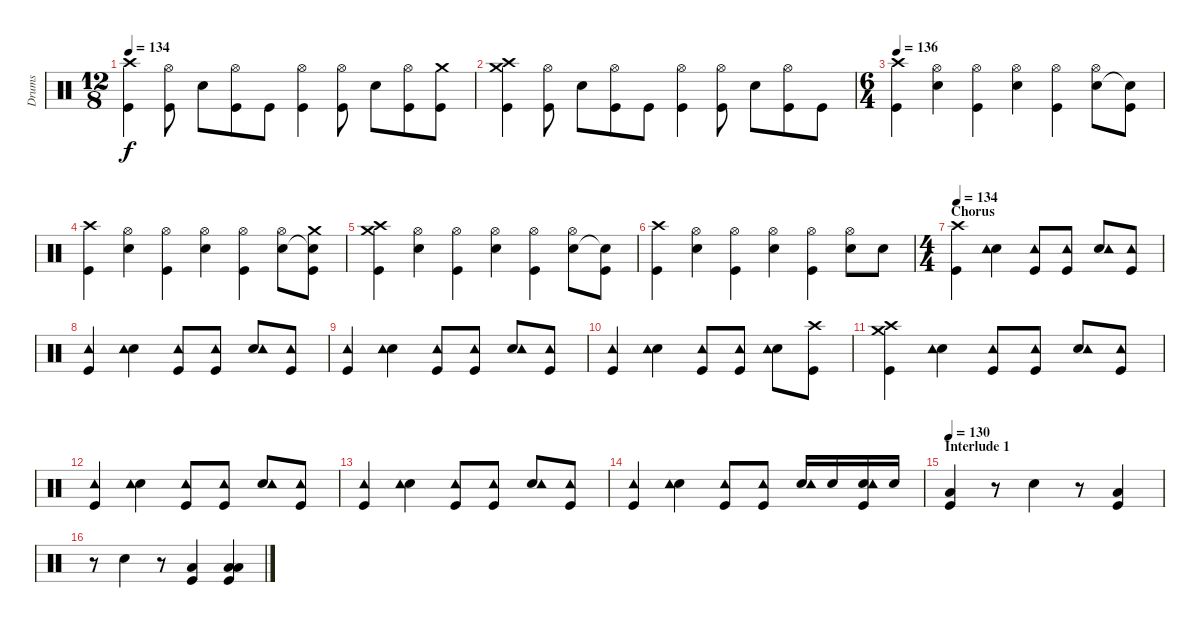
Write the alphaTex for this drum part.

\track ("Drums" "Drums") {instrument percussion}
\staff {score}
\articulation defaults
\ts (12 8)
\tempo 134
\clef neutral
\ks c
("Crash high (hit)" "Kick (hit)").4{dy f} ("Hi-Hat (open)" "Kick (hit)").8 "Electric Snare (hit)".8 ("Hi-Hat (open)" "Kick (hit)").8 "Kick (hit)".8 ("Hi-Hat (open)" "Kick (hit)").4 ("Hi-Hat (open)" "Kick (hit)").8 "Electric Snare (hit)".8 ("Hi-Hat (open)" "Kick (hit)").8 ("Crash medium (hit)" "Kick (hit)").8 |
("Crash medium (hit)" "Crash high (hit)" "Kick (hit)").4 ("Hi-Hat (open)" "Kick (hit)").8 "Electric Snare (hit)".8 ("Hi-Hat (open)" "Kick (hit)").8 "Kick (hit)".8 ("Hi-Hat (open)" "Kick (hit)").4 ("Hi-Hat (open)" "Kick (hit)").8 "Electric Snare (hit)".8 ("Hi-Hat (open)" "Kick (hit)").8 "Kick (hit)".8 |
\ts (6 4)
\tempo 136
("Crash high (hit)" "Kick (hit)").4 ("Electric Snare (hit)" "Hi-Hat (open)").4 ("Hi-Hat (open)" "Kick (hit)").4 ("Electric Snare (hit)" "Hi-Hat (open)").4 ("Hi-Hat (open)" "Kick (hit)").4 ("Electric Snare (hit)" "Hi-Hat (open)").8 ("Snare (hit)"{t} "Kick (hit)").8 |
("Crash high (hit)" "Kick (hit)").4 ("Electric Snare (hit)" "Hi-Hat (open)").4 ("Hi-Hat (open)" "Kick (hit)").4 ("Electric Snare (hit)" "Hi-Hat (open)").4 ("Hi-Hat (open)" "Kick (hit)").4 ("Electric Snare (hit)" "Hi-Hat (open)").8 ("Snare (hit)"{t} "Crash medium (hit)" "Kick (hit)").8 |
("Crash medium (hit)" "Crash high (hit)" "Kick (hit)").4 ("Electric Snare (hit)" "Hi-Hat (open)").4 ("Hi-Hat (open)" "Kick (hit)").4 ("Electric Snare (hit)" "Hi-Hat (open)").4 ("Hi-Hat (open)" "Kick (hit)").4 ("Electric Snare (hit)" "Hi-Hat (open)").8 ("Snare (hit)"{t} "Kick (hit)").8 |
("Crash high (hit)" "Kick (hit)").4 ("Electric Snare (hit)" "Hi-Hat (open)").4 ("Hi-Hat (open)" "Kick (hit)").4 ("Electric Snare (hit)" "Hi-Hat (open)").4 ("Hi-Hat (open)" "Kick (hit)").4 ("Electric Snare (hit)" "Hi-Hat (open)").8 "Electric Snare (hit)".8 |
\ts (4 4)
\section ("" "Chorus")
\tempo 134
("Crash high (hit)" "Kick (hit)").4 ("Electric Snare (hit)" "Tambourine (hit)").4 ("Tambourine (hit)" "Kick (hit)").8 ("Tambourine (hit)" "Kick (hit)").8 ("Electric Snare (hit)" "Tambourine (hit)").8 ("Tambourine (hit)" "Kick (hit)").8 |
("Tambourine (hit)" "Kick (hit)").4 ("Electric Snare (hit)" "Tambourine (hit)").4 ("Tambourine (hit)" "Kick (hit)").8 ("Tambourine (hit)" "Kick (hit)").8 ("Electric Snare (hit)" "Tambourine (hit)").8 ("Tambourine (hit)" "Kick (hit)").8 |
("Tambourine (hit)" "Kick (hit)").4 ("Electric Snare (hit)" "Tambourine (hit)").4 ("Tambourine (hit)" "Kick (hit)").8 ("Tambourine (hit)" "Kick (hit)").8 ("Electric Snare (hit)" "Tambourine (hit)").8 ("Tambourine (hit)" "Kick (hit)").8 |
("Tambourine (hit)" "Kick (hit)").4 ("Electric Snare (hit)" "Tambourine (hit)").4 ("Tambourine (hit)" "Kick (hit)").8 ("Tambourine (hit)" "Kick (hit)").8 ("Electric Snare (hit)" "Tambourine (hit)").8 ("Crash high (hit)" "Kick (hit)").8 |
("Crash medium (hit)" "Crash high (hit)" "Kick (hit)").4 ("Electric Snare (hit)" "Tambourine (hit)").4 ("Tambourine (hit)" "Kick (hit)").8 ("Tambourine (hit)" "Kick (hit)").8 ("Electric Snare (hit)" "Tambourine (hit)").8 ("Tambourine (hit)" "Kick (hit)").8 |
("Tambourine (hit)" "Kick (hit)").4 ("Electric Snare (hit)" "Tambourine (hit)").4 ("Tambourine (hit)" "Kick (hit)").8 ("Tambourine (hit)" "Kick (hit)").8 ("Electric Snare (hit)" "Tambourine (hit)").8 ("Tambourine (hit)" "Kick (hit)").8 |
("Tambourine (hit)" "Kick (hit)").4 ("Electric Snare (hit)" "Tambourine (hit)").4 ("Tambourine (hit)" "Kick (hit)").8 ("Tambourine (hit)" "Kick (hit)").8 ("Electric Snare (hit)" "Tambourine (hit)").8 ("Tambourine (hit)" "Kick (hit)").8 |
("Tambourine (hit)" "Kick (hit)").4 ("Electric Snare (hit)" "Tambourine (hit)").4 ("Tambourine (hit)" "Kick (hit)").8 ("Tambourine (hit)" "Kick (hit)").8 ("Electric Snare (hit)" "Tambourine (hit)").16 "Electric Snare (hit)".16 ("Electric Snare (hit)" "Tambourine (hit)" "Kick (hit)").16 "Electric Snare (hit)".16 |
\section ("" "Interlude 1")
\tempo 130
("Low Tom (hit)" "Kick (hit)").4 r.8 "Electric Snare (hit)".4 r.8 ("Low Tom (hit)" "Kick (hit)").4 |
r.8 "Electric Snare (hit)".4 r.8 ("Low Tom (hit)" "Kick (hit)").4 ("Low Tom (hit)" "Low Floor Tom (hit)" "Kick (hit)").4
